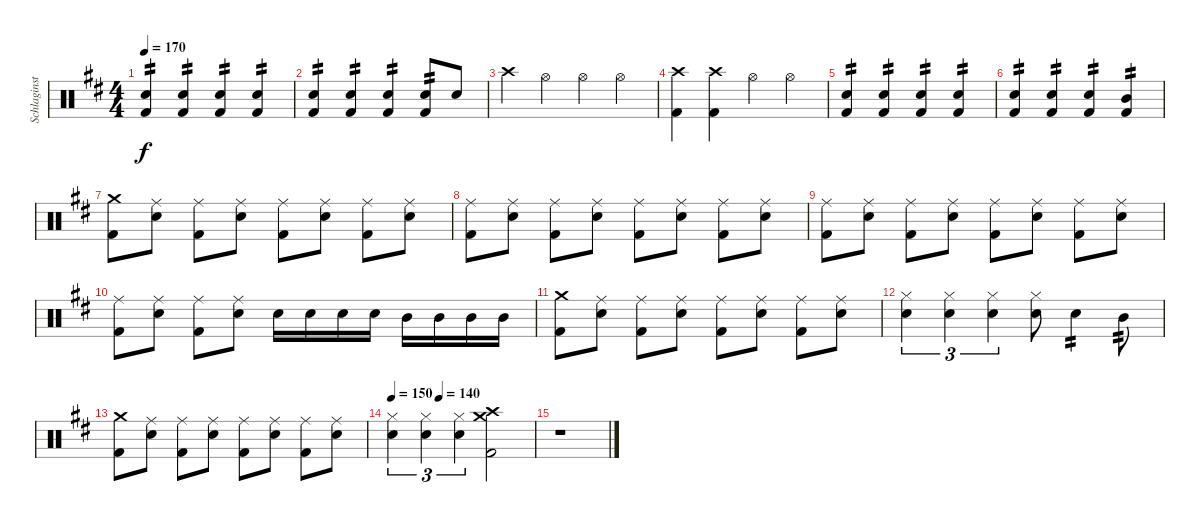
\track ("Schlaginstrumente - Auswahl" "Schlaginst") {instrument percussion}
\staff {score}
\articulation defaults
\ts (4 4)
\tempo 170
\clef neutral
\ks d
("Snare (hit) 2" "Kick (hit) 2").4{tp 2 dy f} ("Snare (hit) 2" "Kick (hit) 2").4{tp 2} ("Snare (hit) 2" "Kick (hit) 2").4{tp 2} ("Snare (hit) 2" "Kick (hit) 2").4{tp 2} |
("Snare (hit) 2" "Kick (hit) 2").4{tp 2} ("Snare (hit) 2" "Kick (hit) 2").4{tp 2} ("Snare (hit) 2" "Kick (hit) 2").4{tp 2} ("Snare (hit) 2" "Kick (hit) 2").8{tp 2} "Snare (hit) 2".8 |
"Crash high (hit)".4 "Hi-Hat (open)".4 "Hi-Hat (open)".4 "Hi-Hat (open)".4 |
("Crash high (hit)" "Kick (hit) 2").4 ("Crash high (hit)" "Kick (hit) 2").4 "Hi-Hat (open)".4 "Hi-Hat (open)".4 |
("Snare (hit) 2" "Kick (hit) 2").4{tp 2} ("Snare (hit) 2" "Kick (hit) 2").4{tp 2} ("Snare (hit) 2" "Kick (hit) 2").4{tp 2} ("Snare (hit) 2" "Kick (hit) 2").4{tp 2} |
("Snare (hit) 2" "Kick (hit) 2").4{tp 2} ("Snare (hit) 2" "Kick (hit) 2").4{tp 2} ("Snare (hit) 2" "Kick (hit) 2").4{tp 2} ("Mid Tom (hit)" "Kick (hit) 2").4{tp 2} |
("Crash medium (hit)" "Kick (hit) 2").8 ("Ride (middle)" "Snare (hit) 2").8 ("Ride (middle)" "Kick (hit) 2").8 ("Ride (middle)" "Snare (hit) 2").8 ("Ride (middle)" "Kick (hit) 2").8 ("Ride (middle)" "Snare (hit) 2").8 ("Ride (middle)" "Kick (hit) 2").8 ("Ride (middle)" "Snare (hit) 2").8 |
("Ride (middle)" "Kick (hit) 2").8 ("Ride (middle)" "Snare (hit) 2").8 ("Ride (middle)" "Kick (hit) 2").8 ("Ride (middle)" "Snare (hit) 2").8 ("Ride (middle)" "Kick (hit) 2").8 ("Ride (middle)" "Snare (hit) 2").8 ("Ride (middle)" "Kick (hit) 2").8 ("Ride (middle)" "Snare (hit) 2").8 |
("Ride (middle)" "Kick (hit) 2").8 ("Ride (middle)" "Snare (hit) 2").8 ("Ride (middle)" "Kick (hit) 2").8 ("Ride (middle)" "Snare (hit) 2").8 ("Ride (middle)" "Kick (hit) 2").8 ("Ride (middle)" "Snare (hit) 2").8 ("Ride (middle)" "Kick (hit) 2").8 ("Ride (middle)" "Snare (hit) 2").8 |
("Ride (middle)" "Kick (hit) 2").8 ("Ride (middle)" "Snare (hit) 2").8 ("Ride (middle)" "Kick (hit) 2").8 ("Ride (middle)" "Snare (hit) 2").8 "Snare (hit) 2".16 "Snare (hit) 2".16 "Snare (hit) 2".16 "Snare (hit) 2".16 "Mid Tom (hit)".16 "Mid Tom (hit)".16 "Mid Tom (hit)".16 "Mid Tom (hit)".16 |
("Crash medium (hit)" "Kick (hit) 2").8 ("Ride (middle)" "Snare (hit) 2").8 ("Ride (middle)" "Kick (hit) 2").8 ("Ride (middle)" "Snare (hit) 2").8 ("Ride (middle)" "Kick (hit) 2").8 ("Ride (middle)" "Snare (hit) 2").8 ("Ride (middle)" "Kick (hit) 2").8 ("Ride (middle)" "Snare (hit) 2").8 |
("Hi-Hat (closed)" "Snare (hit) 2").4{tu (3 2)} ("Hi-Hat (closed)" "Snare (hit) 2").4{tu (3 2)} ("Hi-Hat (closed)" "Snare (hit) 2").4{tu (3 2)} ("Hi-Hat (closed)" "Snare (hit) 2").8 "Snare (hit) 2".4{tp 2} "Mid Tom (hit)".8{tp 2} |
("Crash medium (hit)" "Kick (hit) 2").8 ("Ride (middle)" "Snare (hit) 2").8 ("Ride (middle)" "Kick (hit) 2").8 ("Ride (middle)" "Snare (hit) 2").8 ("Ride (middle)" "Kick (hit) 2").8 ("Ride (middle)" "Snare (hit) 2").8 ("Ride (middle)" "Kick (hit) 2").8 ("Ride (middle)" "Snare (hit) 2").8 |
\tempo 150
\tempo (140 0.3333333333333333)
("Hi-Hat (closed)" "Snare (hit) 2").4{tu (3 2)} ("Hi-Hat (closed)" "Snare (hit) 2").4{tu (3 2)} ("Hi-Hat (closed)" "Snare (hit) 2").4{tu (3 2)} ("Crash high (hit)" "Crash medium (hit)" "Kick (hit) 2").2 |
r.1
